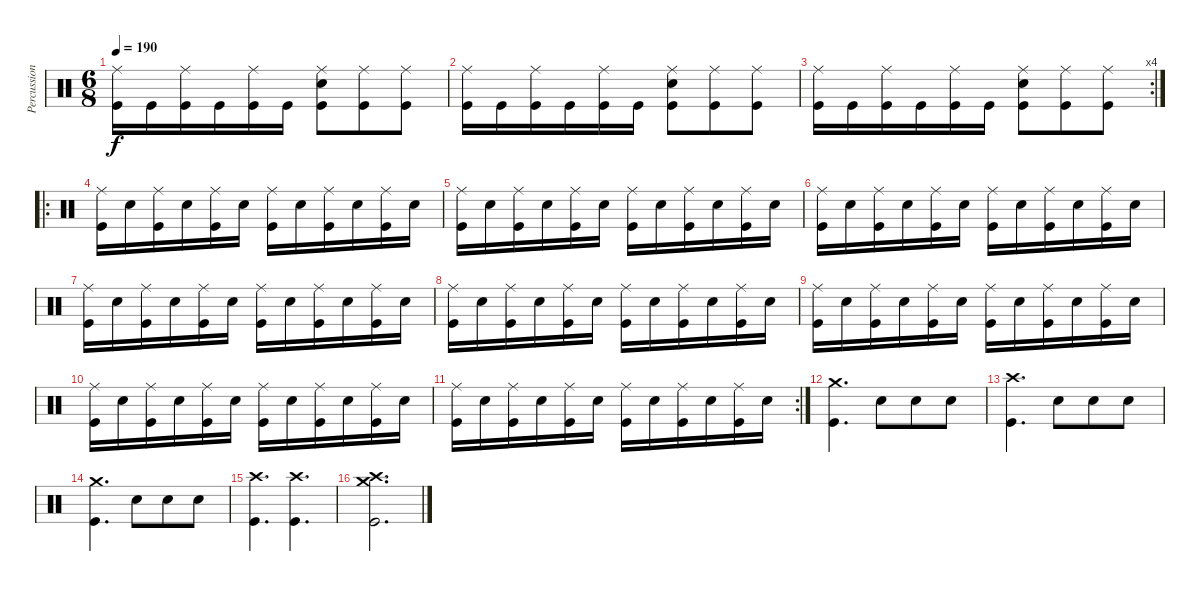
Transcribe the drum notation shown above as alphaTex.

\track ("Percussion" "Percussion") {instrument percussion}
\staff {score}
\articulation defaults
\ts (6 8)
\tempo 190
\clef neutral
\ks c
("Ride (middle)" "Kick (hit)").16{dy f} "Kick (hit)".16 ("Ride (middle)" "Kick (hit)").16 "Kick (hit)".16 ("Ride (middle)" "Kick (hit)").16 "Kick (hit)".16 ("Ride (middle)" "Snare (hit) 2" "Kick (hit)").8 ("Ride (middle)" "Kick (hit)").8 ("Ride (middle)" "Kick (hit)").8 |
("Ride (middle)" "Kick (hit)").16 "Kick (hit)".16 ("Ride (middle)" "Kick (hit)").16 "Kick (hit)".16 ("Ride (middle)" "Kick (hit)").16 "Kick (hit)".16 ("Ride (middle)" "Snare (hit) 2" "Kick (hit)").8 ("Ride (middle)" "Kick (hit)").8 ("Ride (middle)" "Kick (hit)").8 |
\rc 4
("Ride (middle)" "Kick (hit)").16 "Kick (hit)".16 ("Ride (middle)" "Kick (hit)").16 "Kick (hit)".16 ("Ride (middle)" "Kick (hit)").16 "Kick (hit)".16 ("Ride (middle)" "Snare (hit) 2" "Kick (hit)").8 ("Ride (middle)" "Kick (hit)").8 ("Ride (middle)" "Kick (hit)").8 |
\ro
("Ride (middle)" "Kick (hit)").16 "Snare (hit) 2".16 ("Ride (middle)" "Kick (hit)").16 "Snare (hit) 2".16 ("Ride (middle)" "Kick (hit)").16 "Snare (hit) 2".16 ("Ride (middle)" "Kick (hit)").16 "Snare (hit) 2".16 ("Ride (middle)" "Kick (hit)").16 "Snare (hit) 2".16 ("Ride (middle)" "Kick (hit)").16 "Snare (hit) 2".16 |
("Ride (middle)" "Kick (hit)").16 "Snare (hit) 2".16 ("Ride (middle)" "Kick (hit)").16 "Snare (hit) 2".16 ("Ride (middle)" "Kick (hit)").16 "Snare (hit) 2".16 ("Ride (middle)" "Kick (hit)").16 "Snare (hit) 2".16 ("Ride (middle)" "Kick (hit)").16 "Snare (hit) 2".16 ("Ride (middle)" "Kick (hit)").16 "Snare (hit) 2".16 |
("Ride (middle)" "Kick (hit)").16 "Snare (hit) 2".16 ("Ride (middle)" "Kick (hit)").16 "Snare (hit) 2".16 ("Ride (middle)" "Kick (hit)").16 "Snare (hit) 2".16 ("Ride (middle)" "Kick (hit)").16 "Snare (hit) 2".16 ("Ride (middle)" "Kick (hit)").16 "Snare (hit) 2".16 ("Ride (middle)" "Kick (hit)").16 "Snare (hit) 2".16 |
("Ride (middle)" "Kick (hit)").16 "Snare (hit) 2".16 ("Ride (middle)" "Kick (hit)").16 "Snare (hit) 2".16 ("Ride (middle)" "Kick (hit)").16 "Snare (hit) 2".16 ("Ride (middle)" "Kick (hit)").16 "Snare (hit) 2".16 ("Ride (middle)" "Kick (hit)").16 "Snare (hit) 2".16 ("Ride (middle)" "Kick (hit)").16 "Snare (hit) 2".16 |
("Ride (middle)" "Kick (hit)").16 "Snare (hit) 2".16 ("Ride (middle)" "Kick (hit)").16 "Snare (hit) 2".16 ("Ride (middle)" "Kick (hit)").16 "Snare (hit) 2".16 ("Ride (middle)" "Kick (hit)").16 "Snare (hit) 2".16 ("Ride (middle)" "Kick (hit)").16 "Snare (hit) 2".16 ("Ride (middle)" "Kick (hit)").16 "Snare (hit) 2".16 |
("Ride (middle)" "Kick (hit)").16 "Snare (hit) 2".16 ("Ride (middle)" "Kick (hit)").16 "Snare (hit) 2".16 ("Ride (middle)" "Kick (hit)").16 "Snare (hit) 2".16 ("Ride (middle)" "Kick (hit)").16 "Snare (hit) 2".16 ("Ride (middle)" "Kick (hit)").16 "Snare (hit) 2".16 ("Ride (middle)" "Kick (hit)").16 "Snare (hit) 2".16 |
("Ride (middle)" "Kick (hit)").16 "Snare (hit) 2".16 ("Ride (middle)" "Kick (hit)").16 "Snare (hit) 2".16 ("Ride (middle)" "Kick (hit)").16 "Snare (hit) 2".16 ("Ride (middle)" "Kick (hit)").16 "Snare (hit) 2".16 ("Ride (middle)" "Kick (hit)").16 "Snare (hit) 2".16 ("Ride (middle)" "Kick (hit)").16 "Snare (hit) 2".16 |
\rc 2
("Ride (middle)" "Kick (hit)").16 "Snare (hit) 2".16 ("Ride (middle)" "Kick (hit)").16 "Snare (hit) 2".16 ("Ride (middle)" "Kick (hit)").16 "Snare (hit) 2".16 ("Ride (middle)" "Kick (hit)").16 "Snare (hit) 2".16 ("Ride (middle)" "Kick (hit)").16 "Snare (hit) 2".16 ("Ride (middle)" "Kick (hit)").16 "Snare (hit) 2".16 |
("Crash medium (hit)" "Kick (hit)").4{d} "Snare (hit) 2".8 "Snare (hit) 2".8 "Snare (hit) 2".8 |
("Crash high (hit)" "Kick (hit)").4{d} "Snare (hit) 2".8 "Snare (hit) 2".8 "Snare (hit) 2".8 |
("Crash medium (hit)" "Kick (hit)").4{d} "Snare (hit) 2".8 "Snare (hit) 2".8 "Snare (hit) 2".8 |
("Crash high (hit)" "Kick (hit)").4{d} ("Crash high (hit)" "Kick (hit)").4{d} |
("Crash medium (hit)" "Crash high (hit)" "Kick (hit)").2{d}
